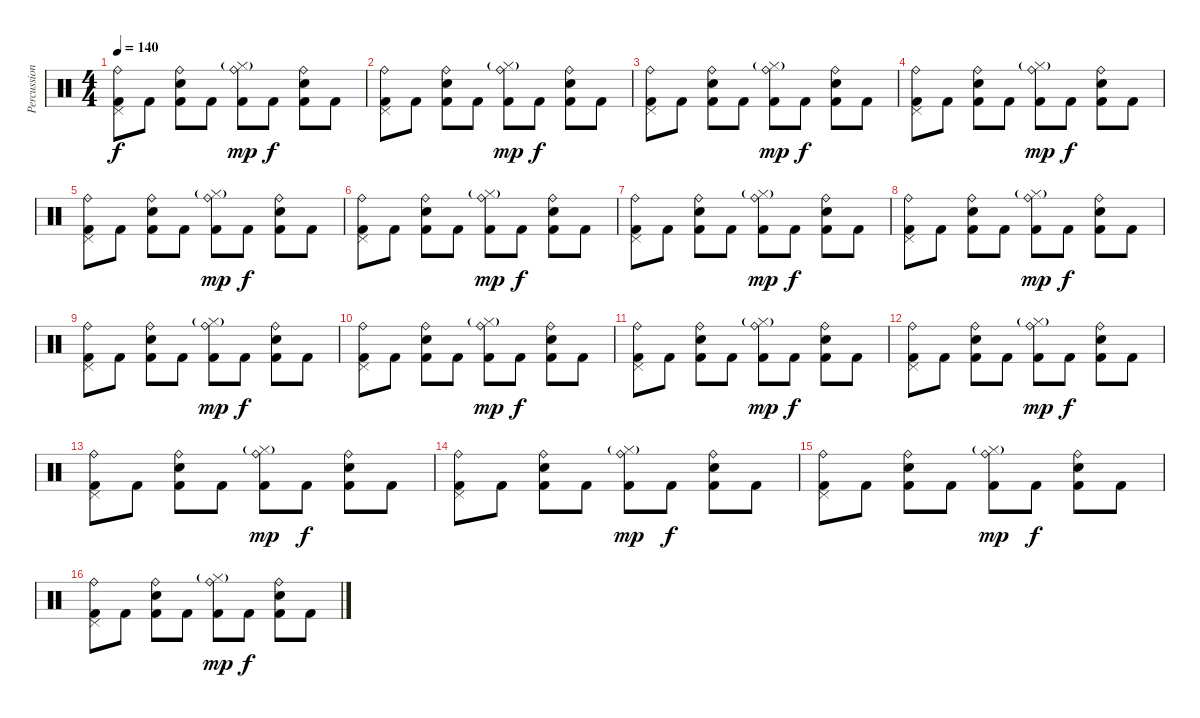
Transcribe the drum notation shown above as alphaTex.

\track ("Percussions" "Percussion") {instrument percussion}
\staff {score}
\articulation defaults
\ts (4 4)
\tempo 140
\clef neutral
\ks c
("Ride (bell)" "Pedal Hi-Hat (hit)" "Kick (hit) 2").8{dy f} "Kick (hit) 2".8 ("Ride (bell)" "Snare (hit) 2" "Kick (hit) 2").8 "Kick (hit) 2".8 ("Ride (bell)" "Hi-Hat (closed)"{g} "Kick (hit) 2").8{dy mp} "Kick (hit) 2".8{dy f} ("Ride (bell)" "Snare (hit) 2" "Kick (hit) 2").8 "Kick (hit) 2".8 |
("Ride (bell)" "Pedal Hi-Hat (hit)" "Kick (hit) 2").8 "Kick (hit) 2".8 ("Ride (bell)" "Snare (hit) 2" "Kick (hit) 2").8 "Kick (hit) 2".8 ("Ride (bell)" "Hi-Hat (closed)"{g} "Kick (hit) 2").8{dy mp} "Kick (hit) 2".8{dy f} ("Ride (bell)" "Snare (hit) 2" "Kick (hit) 2").8 "Kick (hit) 2".8 |
("Ride (bell)" "Pedal Hi-Hat (hit)" "Kick (hit) 2").8 "Kick (hit) 2".8 ("Ride (bell)" "Snare (hit) 2" "Kick (hit) 2").8 "Kick (hit) 2".8 ("Ride (bell)" "Hi-Hat (closed)"{g} "Kick (hit) 2").8{dy mp} "Kick (hit) 2".8{dy f} ("Ride (bell)" "Snare (hit) 2" "Kick (hit) 2").8 "Kick (hit) 2".8 |
("Ride (bell)" "Pedal Hi-Hat (hit)" "Kick (hit) 2").8 "Kick (hit) 2".8 ("Ride (bell)" "Snare (hit) 2" "Kick (hit) 2").8 "Kick (hit) 2".8 ("Ride (bell)" "Hi-Hat (closed)"{g} "Kick (hit) 2").8{dy mp} "Kick (hit) 2".8{dy f} ("Ride (bell)" "Snare (hit) 2" "Kick (hit) 2").8 "Kick (hit) 2".8 |
("Ride (bell)" "Pedal Hi-Hat (hit)" "Kick (hit) 2").8 "Kick (hit) 2".8 ("Ride (bell)" "Snare (hit) 2" "Kick (hit) 2").8 "Kick (hit) 2".8 ("Ride (bell)" "Hi-Hat (closed)"{g} "Kick (hit) 2").8{dy mp} "Kick (hit) 2".8{dy f} ("Ride (bell)" "Snare (hit) 2" "Kick (hit) 2").8 "Kick (hit) 2".8 |
("Ride (bell)" "Pedal Hi-Hat (hit)" "Kick (hit) 2").8 "Kick (hit) 2".8 ("Ride (bell)" "Snare (hit) 2" "Kick (hit) 2").8 "Kick (hit) 2".8 ("Ride (bell)" "Hi-Hat (closed)"{g} "Kick (hit) 2").8{dy mp} "Kick (hit) 2".8{dy f} ("Ride (bell)" "Snare (hit) 2" "Kick (hit) 2").8 "Kick (hit) 2".8 |
("Ride (bell)" "Pedal Hi-Hat (hit)" "Kick (hit) 2").8 "Kick (hit) 2".8 ("Ride (bell)" "Snare (hit) 2" "Kick (hit) 2").8 "Kick (hit) 2".8 ("Ride (bell)" "Hi-Hat (closed)"{g} "Kick (hit) 2").8{dy mp} "Kick (hit) 2".8{dy f} ("Ride (bell)" "Snare (hit) 2" "Kick (hit) 2").8 "Kick (hit) 2".8 |
("Ride (bell)" "Pedal Hi-Hat (hit)" "Kick (hit) 2").8 "Kick (hit) 2".8 ("Ride (bell)" "Snare (hit) 2" "Kick (hit) 2").8 "Kick (hit) 2".8 ("Ride (bell)" "Hi-Hat (closed)"{g} "Kick (hit) 2").8{dy mp} "Kick (hit) 2".8{dy f} ("Ride (bell)" "Snare (hit) 2" "Kick (hit) 2").8 "Kick (hit) 2".8 |
("Ride (bell)" "Pedal Hi-Hat (hit)" "Kick (hit) 2").8 "Kick (hit) 2".8 ("Ride (bell)" "Snare (hit) 2" "Kick (hit) 2").8 "Kick (hit) 2".8 ("Ride (bell)" "Hi-Hat (closed)"{g} "Kick (hit) 2").8{dy mp} "Kick (hit) 2".8{dy f} ("Ride (bell)" "Snare (hit) 2" "Kick (hit) 2").8 "Kick (hit) 2".8 |
("Ride (bell)" "Pedal Hi-Hat (hit)" "Kick (hit) 2").8 "Kick (hit) 2".8 ("Ride (bell)" "Snare (hit) 2" "Kick (hit) 2").8 "Kick (hit) 2".8 ("Ride (bell)" "Hi-Hat (closed)"{g} "Kick (hit) 2").8{dy mp} "Kick (hit) 2".8{dy f} ("Ride (bell)" "Snare (hit) 2" "Kick (hit) 2").8 "Kick (hit) 2".8 |
("Ride (bell)" "Pedal Hi-Hat (hit)" "Kick (hit) 2").8 "Kick (hit) 2".8 ("Ride (bell)" "Snare (hit) 2" "Kick (hit) 2").8 "Kick (hit) 2".8 ("Ride (bell)" "Hi-Hat (closed)"{g} "Kick (hit) 2").8{dy mp} "Kick (hit) 2".8{dy f} ("Ride (bell)" "Snare (hit) 2" "Kick (hit) 2").8 "Kick (hit) 2".8 |
("Ride (bell)" "Pedal Hi-Hat (hit)" "Kick (hit) 2").8 "Kick (hit) 2".8 ("Ride (bell)" "Snare (hit) 2" "Kick (hit) 2").8 "Kick (hit) 2".8 ("Ride (bell)" "Hi-Hat (closed)"{g} "Kick (hit) 2").8{dy mp} "Kick (hit) 2".8{dy f} ("Ride (bell)" "Snare (hit) 2" "Kick (hit) 2").8 "Kick (hit) 2".8 |
("Ride (bell)" "Pedal Hi-Hat (hit)" "Kick (hit) 2").8 "Kick (hit) 2".8 ("Ride (bell)" "Snare (hit) 2" "Kick (hit) 2").8 "Kick (hit) 2".8 ("Ride (bell)" "Hi-Hat (closed)"{g} "Kick (hit) 2").8{dy mp} "Kick (hit) 2".8{dy f} ("Ride (bell)" "Snare (hit) 2" "Kick (hit) 2").8 "Kick (hit) 2".8 |
("Ride (bell)" "Pedal Hi-Hat (hit)" "Kick (hit) 2").8 "Kick (hit) 2".8 ("Ride (bell)" "Snare (hit) 2" "Kick (hit) 2").8 "Kick (hit) 2".8 ("Ride (bell)" "Hi-Hat (closed)"{g} "Kick (hit) 2").8{dy mp} "Kick (hit) 2".8{dy f} ("Ride (bell)" "Snare (hit) 2" "Kick (hit) 2").8 "Kick (hit) 2".8 |
("Ride (bell)" "Pedal Hi-Hat (hit)" "Kick (hit) 2").8 "Kick (hit) 2".8 ("Ride (bell)" "Snare (hit) 2" "Kick (hit) 2").8 "Kick (hit) 2".8 ("Ride (bell)" "Hi-Hat (closed)"{g} "Kick (hit) 2").8{dy mp} "Kick (hit) 2".8{dy f} ("Ride (bell)" "Snare (hit) 2" "Kick (hit) 2").8 "Kick (hit) 2".8 |
("Ride (bell)" "Pedal Hi-Hat (hit)" "Kick (hit) 2").8 "Kick (hit) 2".8 ("Ride (bell)" "Snare (hit) 2" "Kick (hit) 2").8 "Kick (hit) 2".8 ("Ride (bell)" "Hi-Hat (closed)"{g} "Kick (hit) 2").8{dy mp} "Kick (hit) 2".8{dy f} ("Ride (bell)" "Snare (hit) 2" "Kick (hit) 2").8 "Kick (hit) 2".8
